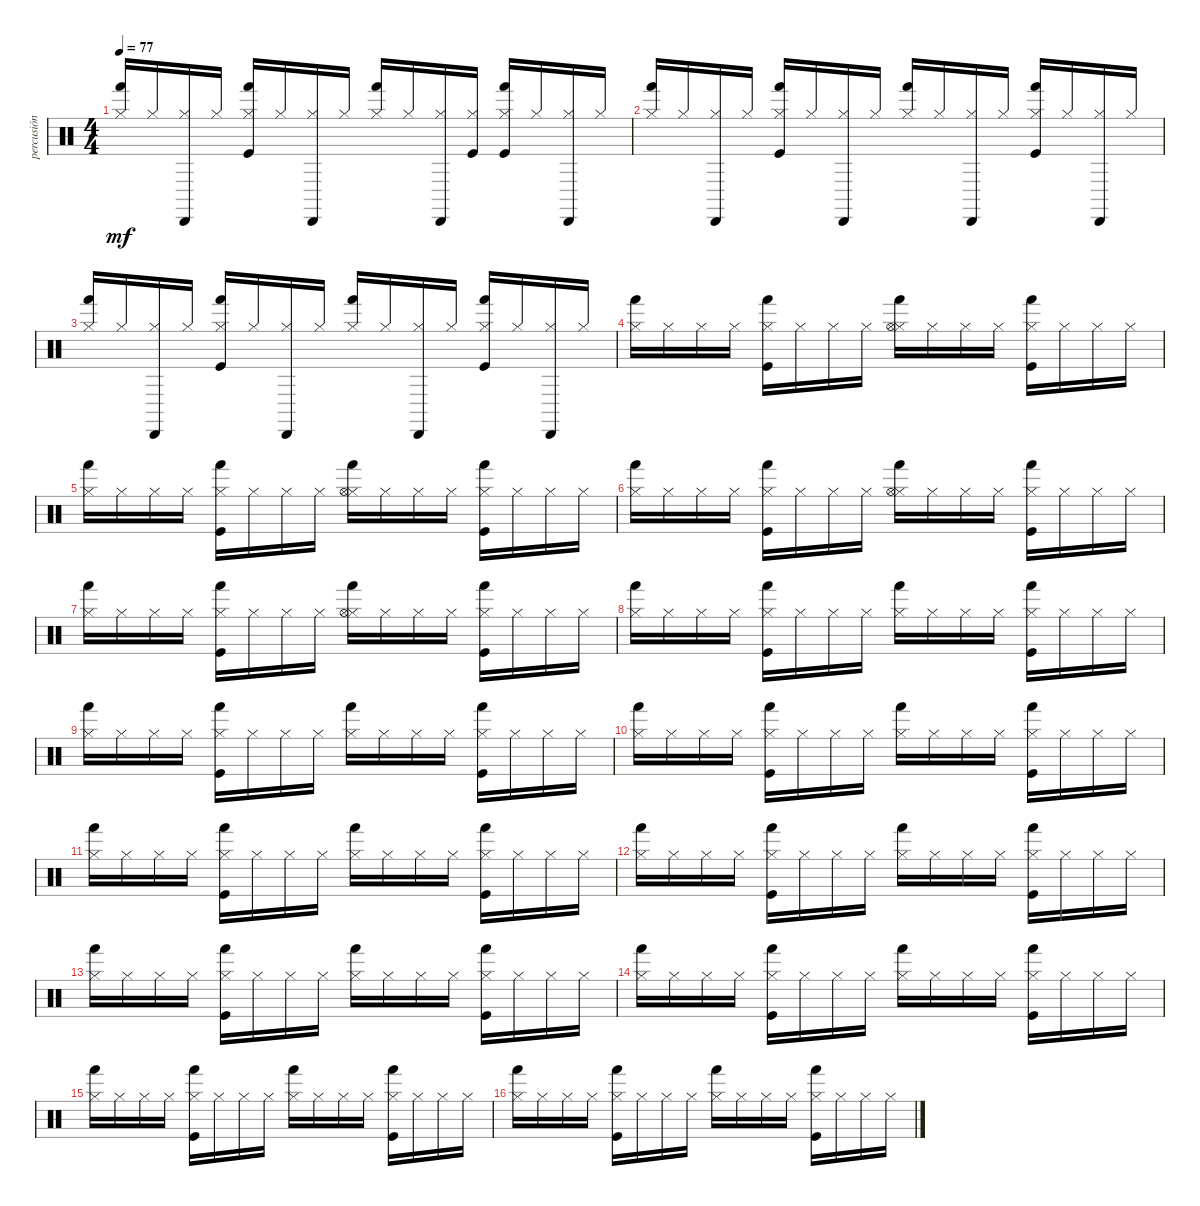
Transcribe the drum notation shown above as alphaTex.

\track ("percusión" "percusión") {instrument percussion}
\staff {score}
\articulation defaults
\ts (4 4)
\tempo 77
\clef neutral
\ks c
("Hand (hit)" "Hi-Hat (closed)").16{dy mf} "Hi-Hat (closed)".16 ("Hi-Hat (closed)" "Cabasa (hit)").16 "Hi-Hat (closed)".16 ("Kick (hit)" "Hand (hit)" "Hi-Hat (closed)").16 "Hi-Hat (closed)".16 ("Hi-Hat (closed)" "Cabasa (hit)").16 "Hi-Hat (closed)".16 ("Hand (hit)" "Hi-Hat (closed)").16 "Hi-Hat (closed)".16 ("Hi-Hat (closed)" "Cabasa (hit)").16 ("Hi-Hat (closed)" "Kick (hit)").16 ("Kick (hit)" "Hand (hit)" "Hi-Hat (closed)").16 "Hi-Hat (closed)".16 ("Hi-Hat (closed)" "Cabasa (hit)").16 "Hi-Hat (closed)".16 |
("Hand (hit)" "Hi-Hat (closed)").16 "Hi-Hat (closed)".16 ("Hi-Hat (closed)" "Cabasa (hit)").16 "Hi-Hat (closed)".16 ("Kick (hit)" "Hand (hit)" "Hi-Hat (closed)").16 "Hi-Hat (closed)".16 ("Hi-Hat (closed)" "Cabasa (hit)").16 "Hi-Hat (closed)".16 ("Hand (hit)" "Hi-Hat (closed)").16 "Hi-Hat (closed)".16 ("Hi-Hat (closed)" "Cabasa (hit)").16 "Hi-Hat (closed)".16 ("Kick (hit)" "Hand (hit)" "Hi-Hat (closed)").16 "Hi-Hat (closed)".16 ("Hi-Hat (closed)" "Cabasa (hit)").16 "Hi-Hat (closed)".16 |
("Hand (hit)" "Hi-Hat (closed)").16 "Hi-Hat (closed)".16 ("Hi-Hat (closed)" "Cabasa (hit)").16 "Hi-Hat (closed)".16 ("Kick (hit)" "Hand (hit)" "Hi-Hat (closed)").16 "Hi-Hat (closed)".16 ("Hi-Hat (closed)" "Cabasa (hit)").16 "Hi-Hat (closed)".16 ("Hand (hit)" "Hi-Hat (closed)").16 "Hi-Hat (closed)".16 ("Hi-Hat (closed)" "Cabasa (hit)").16 "Hi-Hat (closed)".16 ("Kick (hit)" "Hand (hit)" "Hi-Hat (closed)").16 "Hi-Hat (closed)".16 ("Hi-Hat (closed)" "Cabasa (hit)").16 "Hi-Hat (closed)".16 |
("Hand (hit)" "Hi-Hat (closed)").16 "Hi-Hat (closed)".16 "Hi-Hat (closed)".16 "Hi-Hat (closed)".16 ("Kick (hit)" "Hand (hit)" "Hi-Hat (closed)").16 "Hi-Hat (closed)".16 "Hi-Hat (closed)".16 "Hi-Hat (closed)".16 ("Hand (hit)" "Hi-Hat (closed)" "Hi-Hat (open)").16 "Hi-Hat (closed)".16 "Hi-Hat (closed)".16 "Hi-Hat (closed)".16 ("Kick (hit)" "Hand (hit)" "Hi-Hat (closed)").16 "Hi-Hat (closed)".16 "Hi-Hat (closed)".16 "Hi-Hat (closed)".16 |
("Hand (hit)" "Hi-Hat (closed)").16 "Hi-Hat (closed)".16 "Hi-Hat (closed)".16 "Hi-Hat (closed)".16 ("Kick (hit)" "Hand (hit)" "Hi-Hat (closed)").16 "Hi-Hat (closed)".16 "Hi-Hat (closed)".16 "Hi-Hat (closed)".16 ("Hand (hit)" "Hi-Hat (closed)" "Hi-Hat (open)").16 "Hi-Hat (closed)".16 "Hi-Hat (closed)".16 "Hi-Hat (closed)".16 ("Kick (hit)" "Hand (hit)" "Hi-Hat (closed)").16 "Hi-Hat (closed)".16 "Hi-Hat (closed)".16 "Hi-Hat (closed)".16 |
("Hand (hit)" "Hi-Hat (closed)").16 "Hi-Hat (closed)".16 "Hi-Hat (closed)".16 "Hi-Hat (closed)".16 ("Kick (hit)" "Hand (hit)" "Hi-Hat (closed)").16 "Hi-Hat (closed)".16 "Hi-Hat (closed)".16 "Hi-Hat (closed)".16 ("Hand (hit)" "Hi-Hat (closed)" "Hi-Hat (open)").16 "Hi-Hat (closed)".16 "Hi-Hat (closed)".16 "Hi-Hat (closed)".16 ("Kick (hit)" "Hand (hit)" "Hi-Hat (closed)").16 "Hi-Hat (closed)".16 "Hi-Hat (closed)".16 "Hi-Hat (closed)".16 |
("Hand (hit)" "Hi-Hat (closed)").16 "Hi-Hat (closed)".16 "Hi-Hat (closed)".16 "Hi-Hat (closed)".16 ("Kick (hit)" "Hand (hit)" "Hi-Hat (closed)").16 "Hi-Hat (closed)".16 "Hi-Hat (closed)".16 "Hi-Hat (closed)".16 ("Hand (hit)" "Hi-Hat (closed)" "Hi-Hat (open)").16 "Hi-Hat (closed)".16 "Hi-Hat (closed)".16 "Hi-Hat (closed)".16 ("Kick (hit)" "Hand (hit)" "Hi-Hat (closed)").16 "Hi-Hat (closed)".16 "Hi-Hat (closed)".16 "Hi-Hat (closed)".16 |
("Hand (hit)" "Hi-Hat (closed)").16 "Hi-Hat (closed)".16 "Hi-Hat (closed)".16 "Hi-Hat (closed)".16 ("Kick (hit)" "Hand (hit)" "Hi-Hat (closed)").16 "Hi-Hat (closed)".16 "Hi-Hat (closed)".16 "Hi-Hat (closed)".16 ("Hand (hit)" "Hi-Hat (closed)").16 "Hi-Hat (closed)".16 "Hi-Hat (closed)".16 "Hi-Hat (closed)".16 ("Kick (hit)" "Hand (hit)" "Hi-Hat (closed)").16 "Hi-Hat (closed)".16 "Hi-Hat (closed)".16 "Hi-Hat (closed)".16 |
("Hand (hit)" "Hi-Hat (closed)").16 "Hi-Hat (closed)".16 "Hi-Hat (closed)".16 "Hi-Hat (closed)".16 ("Kick (hit)" "Hand (hit)" "Hi-Hat (closed)").16 "Hi-Hat (closed)".16 "Hi-Hat (closed)".16 "Hi-Hat (closed)".16 ("Hand (hit)" "Hi-Hat (closed)").16 "Hi-Hat (closed)".16 "Hi-Hat (closed)".16 "Hi-Hat (closed)".16 ("Kick (hit)" "Hand (hit)" "Hi-Hat (closed)").16 "Hi-Hat (closed)".16 "Hi-Hat (closed)".16 "Hi-Hat (closed)".16 |
("Hand (hit)" "Hi-Hat (closed)").16 "Hi-Hat (closed)".16 "Hi-Hat (closed)".16 "Hi-Hat (closed)".16 ("Kick (hit)" "Hand (hit)" "Hi-Hat (closed)").16 "Hi-Hat (closed)".16 "Hi-Hat (closed)".16 "Hi-Hat (closed)".16 ("Hand (hit)" "Hi-Hat (closed)").16 "Hi-Hat (closed)".16 "Hi-Hat (closed)".16 "Hi-Hat (closed)".16 ("Kick (hit)" "Hand (hit)" "Hi-Hat (closed)").16 "Hi-Hat (closed)".16 "Hi-Hat (closed)".16 "Hi-Hat (closed)".16 |
("Hand (hit)" "Hi-Hat (closed)").16 "Hi-Hat (closed)".16 "Hi-Hat (closed)".16 "Hi-Hat (closed)".16 ("Kick (hit)" "Hand (hit)" "Hi-Hat (closed)").16 "Hi-Hat (closed)".16 "Hi-Hat (closed)".16 "Hi-Hat (closed)".16 ("Hand (hit)" "Hi-Hat (closed)").16 "Hi-Hat (closed)".16 "Hi-Hat (closed)".16 "Hi-Hat (closed)".16 ("Kick (hit)" "Hand (hit)" "Hi-Hat (closed)").16 "Hi-Hat (closed)".16 "Hi-Hat (closed)".16 "Hi-Hat (closed)".16 |
("Hand (hit)" "Hi-Hat (closed)").16 "Hi-Hat (closed)".16 "Hi-Hat (closed)".16 "Hi-Hat (closed)".16 ("Kick (hit)" "Hand (hit)" "Hi-Hat (closed)").16 "Hi-Hat (closed)".16 "Hi-Hat (closed)".16 "Hi-Hat (closed)".16 ("Hand (hit)" "Hi-Hat (closed)").16 "Hi-Hat (closed)".16 "Hi-Hat (closed)".16 "Hi-Hat (closed)".16 ("Kick (hit)" "Hand (hit)" "Hi-Hat (closed)").16 "Hi-Hat (closed)".16 "Hi-Hat (closed)".16 "Hi-Hat (closed)".16 |
("Hand (hit)" "Hi-Hat (closed)").16 "Hi-Hat (closed)".16 "Hi-Hat (closed)".16 "Hi-Hat (closed)".16 ("Kick (hit)" "Hand (hit)" "Hi-Hat (closed)").16 "Hi-Hat (closed)".16 "Hi-Hat (closed)".16 "Hi-Hat (closed)".16 ("Hand (hit)" "Hi-Hat (closed)").16 "Hi-Hat (closed)".16 "Hi-Hat (closed)".16 "Hi-Hat (closed)".16 ("Kick (hit)" "Hand (hit)" "Hi-Hat (closed)").16 "Hi-Hat (closed)".16 "Hi-Hat (closed)".16 "Hi-Hat (closed)".16 |
("Hand (hit)" "Hi-Hat (closed)").16 "Hi-Hat (closed)".16 "Hi-Hat (closed)".16 "Hi-Hat (closed)".16 ("Kick (hit)" "Hand (hit)" "Hi-Hat (closed)").16 "Hi-Hat (closed)".16 "Hi-Hat (closed)".16 "Hi-Hat (closed)".16 ("Hand (hit)" "Hi-Hat (closed)").16 "Hi-Hat (closed)".16 "Hi-Hat (closed)".16 "Hi-Hat (closed)".16 ("Kick (hit)" "Hand (hit)" "Hi-Hat (closed)").16 "Hi-Hat (closed)".16 "Hi-Hat (closed)".16 "Hi-Hat (closed)".16 |
("Hand (hit)" "Hi-Hat (closed)").16 "Hi-Hat (closed)".16 "Hi-Hat (closed)".16 "Hi-Hat (closed)".16 ("Kick (hit)" "Hand (hit)" "Hi-Hat (closed)").16 "Hi-Hat (closed)".16 "Hi-Hat (closed)".16 "Hi-Hat (closed)".16 ("Hand (hit)" "Hi-Hat (closed)").16 "Hi-Hat (closed)".16 "Hi-Hat (closed)".16 "Hi-Hat (closed)".16 ("Kick (hit)" "Hand (hit)" "Hi-Hat (closed)").16 "Hi-Hat (closed)".16 "Hi-Hat (closed)".16 "Hi-Hat (closed)".16 |
("Hand (hit)" "Hi-Hat (closed)").16 "Hi-Hat (closed)".16 "Hi-Hat (closed)".16 "Hi-Hat (closed)".16 ("Kick (hit)" "Hand (hit)" "Hi-Hat (closed)").16 "Hi-Hat (closed)".16 "Hi-Hat (closed)".16 "Hi-Hat (closed)".16 ("Hand (hit)" "Hi-Hat (closed)").16 "Hi-Hat (closed)".16 "Hi-Hat (closed)".16 "Hi-Hat (closed)".16 ("Kick (hit)" "Hand (hit)" "Hi-Hat (closed)").16 "Hi-Hat (closed)".16 "Hi-Hat (closed)".16 "Hi-Hat (closed)".16
